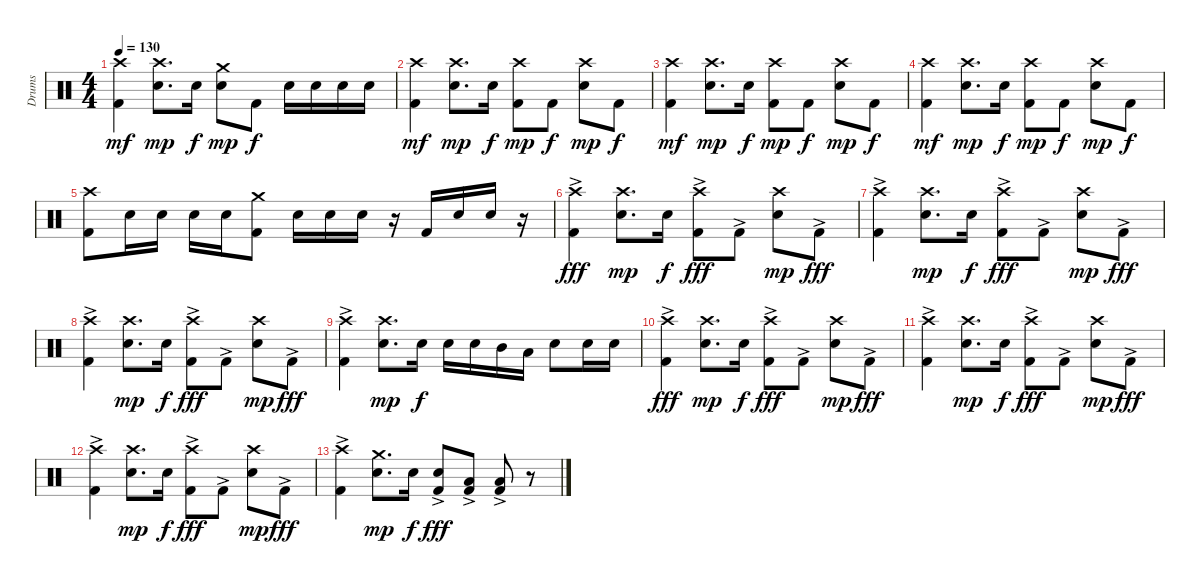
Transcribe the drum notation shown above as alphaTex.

\track ("Drums" "Drums") {instrument percussion}
\staff {score}
\articulation defaults
\ts (4 4)
\tempo 130
\clef neutral
\ks c
("Crash high (hit)" "Kick (hit) 2").4{dy mf} ("Crash high (hit)" "Snare (hit) 2").8{d dy mp} "Snare (hit) 2".16{dy f} ("Crash medium (hit)" "Snare (hit) 2").8{dy mp} "Kick (hit) 2".8{dy f} "Snare (hit) 2".16 "Snare (hit) 2".16 "Snare (hit) 2".16 "Snare (hit) 2".16 |
("Crash high (hit)" "Kick (hit) 2").4{dy mf} ("Crash high (hit)" "Snare (hit) 2").8{d dy mp} "Snare (hit) 2".16{dy f} ("Crash high (hit)" "Kick (hit) 2").8{dy mp} "Kick (hit) 2".8{dy f} ("Crash high (hit)" "Snare (hit) 2").8{dy mp} "Kick (hit) 2".8{dy f} |
("Crash high (hit)" "Kick (hit) 2").4{dy mf} ("Crash high (hit)" "Snare (hit) 2").8{d dy mp} "Snare (hit) 2".16{dy f} ("Crash high (hit)" "Kick (hit) 2").8{dy mp} "Kick (hit) 2".8{dy f} ("Crash high (hit)" "Snare (hit) 2").8{dy mp} "Kick (hit) 2".8{dy f} |
("Crash high (hit)" "Kick (hit) 2").4{dy mf} ("Crash high (hit)" "Snare (hit) 2").8{d dy mp} "Snare (hit) 2".16{dy f} ("Crash high (hit)" "Kick (hit) 2").8{dy mp} "Kick (hit) 2".8{dy f} ("Crash high (hit)" "Snare (hit) 2").8{dy mp} "Kick (hit) 2".8{dy f} |
("Crash high (hit)" "Kick (hit) 2").8 "Snare (hit) 2".16 "Snare (hit) 2".16 "Snare (hit) 2".16 "Snare (hit) 2".16 ("Crash medium (hit)" "Kick (hit) 2").8 "Snare (hit) 2".16 "Snare (hit) 2".16 "Snare (hit) 2".16 r.16 "Kick (hit) 2".16 "Snare (hit) 2".16 "Snare (hit) 2".16 r.16 |
("Crash high (hit)" "Kick (hit) 2"{ac}).4{dy fff} ("Crash high (hit)" "Snare (hit) 2").8{d dy mp} "Snare (hit) 2".16{dy f} ("Crash high (hit)" "Kick (hit) 2"{ac}).8{dy fff} "Kick (hit) 2"{ac}.8 ("Crash high (hit)" "Snare (hit) 2").8{dy mp} "Kick (hit) 2"{ac}.8{dy fff} |
("Crash high (hit)" "Kick (hit) 2"{ac}).4 ("Crash high (hit)" "Snare (hit) 2").8{d dy mp} "Snare (hit) 2".16{dy f} ("Crash high (hit)" "Kick (hit) 2"{ac}).8{dy fff} "Kick (hit) 2"{ac}.8 ("Crash high (hit)" "Snare (hit) 2").8{dy mp} "Kick (hit) 2"{ac}.8{dy fff} |
("Crash high (hit)" "Kick (hit) 2"{ac}).4 ("Crash high (hit)" "Snare (hit) 2").8{d dy mp} "Snare (hit) 2".16{dy f} ("Crash high (hit)" "Kick (hit) 2"{ac}).8{dy fff} "Kick (hit) 2"{ac}.8 ("Crash high (hit)" "Snare (hit) 2").8{dy mp} "Kick (hit) 2"{ac}.8{dy fff} |
("Crash high (hit)" "Kick (hit) 2"{ac}).4 ("Crash high (hit)" "Snare (hit) 2").8{d dy mp} "Snare (hit) 2".16{dy f} "Snare (hit) 2".16 "Snare (hit) 2".16 "Mid Tom (hit)".16 "Low Floor Tom (hit)".16 "Snare (hit) 2".8 "Snare (hit) 2".16 "Snare (hit) 2".16 |
("Crash high (hit)" "Kick (hit) 2"{ac}).4{dy fff} ("Crash high (hit)" "Snare (hit) 2").8{d dy mp} "Snare (hit) 2".16{dy f} ("Crash high (hit)" "Kick (hit) 2"{ac}).8{dy fff} "Kick (hit) 2"{ac}.8 ("Crash high (hit)" "Snare (hit) 2").8{dy mp} "Kick (hit) 2"{ac}.8{dy fff} |
("Crash high (hit)" "Kick (hit) 2"{ac}).4 ("Crash high (hit)" "Snare (hit) 2").8{d dy mp} "Snare (hit) 2".16{dy f} ("Crash high (hit)" "Kick (hit) 2"{ac}).8{dy fff} "Kick (hit) 2"{ac}.8 ("Crash high (hit)" "Snare (hit) 2").8{dy mp} "Kick (hit) 2"{ac}.8{dy fff} |
("Crash high (hit)" "Kick (hit) 2"{ac}).4 ("Crash high (hit)" "Snare (hit) 2").8{d dy mp} "Snare (hit) 2".16{dy f} ("Crash high (hit)" "Kick (hit) 2"{ac}).8{dy fff} "Kick (hit) 2"{ac}.8 ("Crash high (hit)" "Snare (hit) 2").8{dy mp} "Kick (hit) 2"{ac}.8{dy fff} |
("Crash high (hit)" "Kick (hit) 2"{ac}).4 ("Crash medium (hit)" "Snare (hit) 2").8{d dy mp} "Snare (hit) 2".16{dy f} ("Snare (hit) 2" "Kick (hit) 2"{ac}).8{dy fff} ("Low Floor Tom (hit)" "Kick (hit) 2"{ac}).8 ("Low Floor Tom (hit)" "Kick (hit) 2"{ac}).8 r.8
